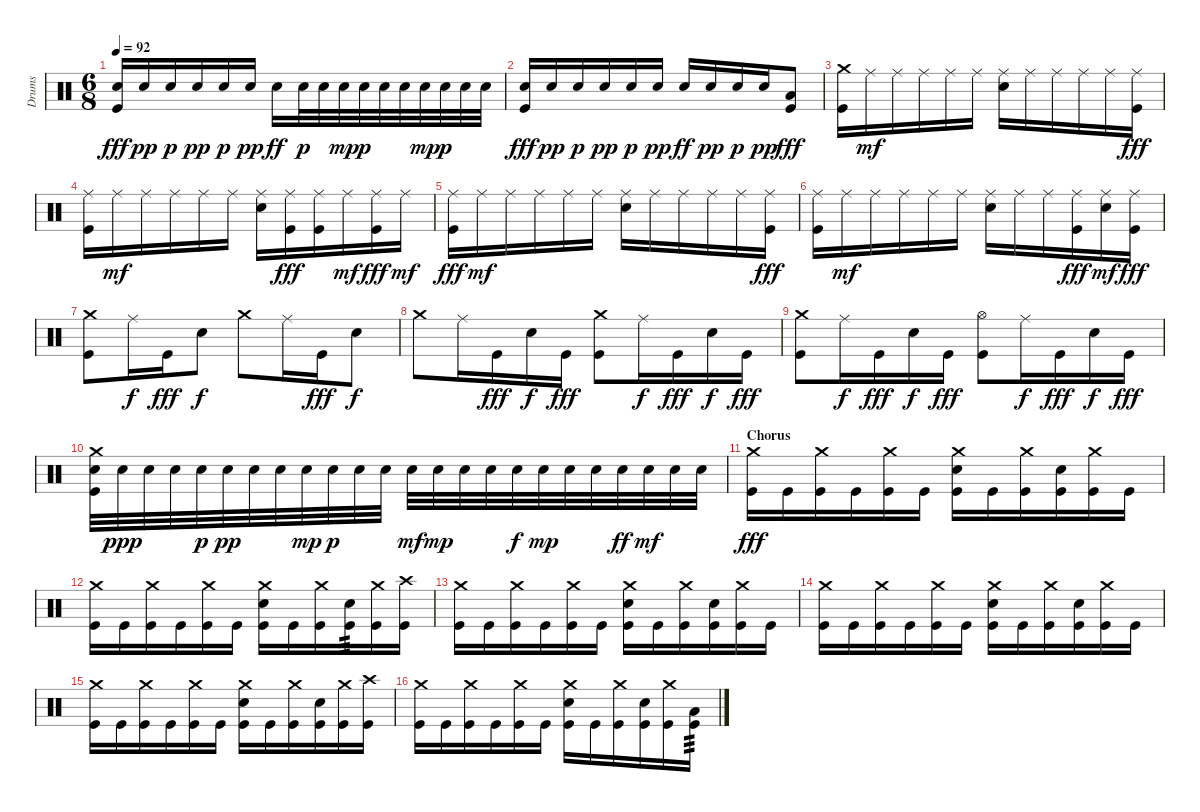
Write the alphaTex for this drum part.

\track ("Drums" "Drums") {instrument percussion}
\staff {score}
\articulation defaults
\ts (6 8)
\tempo 92
\clef neutral
\ks c
("Snare (hit) 2" "Kick (hit)").16{dy fff} "Snare (hit) 2".16{dy pp} "Snare (hit) 2".16{dy p} "Snare (hit) 2".16{dy pp} "Snare (hit) 2".16{dy p} "Snare (hit) 2".16{dy pp} "Snare (hit) 2".16{dy ff} "Snare (hit) 2".32{dy p} "Snare (hit) 2".32 "Snare (hit) 2".32{dy mp} "Snare (hit) 2".32{dy p} "Snare (hit) 2".32 "Snare (hit) 2".32 "Snare (hit) 2".32{dy mp} "Snare (hit) 2".32{dy p} "Snare (hit) 2".32 "Snare (hit) 2".32 |
("Snare (hit) 2" "Kick (hit)").16{dy fff} "Snare (hit) 2".16{dy pp} "Snare (hit) 2".16{dy p} "Snare (hit) 2".16{dy pp} "Snare (hit) 2".16{dy p} "Snare (hit) 2".16{dy pp} "Snare (hit) 2".16{dy ff} "Snare (hit) 2".16{dy pp} "Snare (hit) 2".16{dy p} "Snare (hit) 2".16{dy pp} ("Low Tom (hit)" "Kick (hit)").8{dy fff} |
("Crash medium (hit)" "Kick (hit)").16 "Ride (middle)".16{dy mf} "Ride (middle)".16 "Ride (middle)".16 "Ride (middle)".16 "Ride (middle)".16 ("Ride (middle)" "Snare (hit) 2").16 "Ride (middle)".16 "Ride (middle)".16 "Ride (middle)".16 "Ride (middle)".16 ("Ride (middle)" "Kick (hit)").16{dy fff} |
("Ride (middle)" "Kick (hit)").16 "Ride (middle)".16{dy mf} "Ride (middle)".16 "Ride (middle)".16 "Ride (middle)".16 "Ride (middle)".16 ("Ride (middle)" "Snare (hit) 2").16 ("Ride (middle)" "Kick (hit)").16{dy fff} ("Ride (middle)" "Kick (hit)").16 "Ride (middle)".16{dy mf} ("Ride (middle)" "Kick (hit)").16{dy fff} "Ride (middle)".16{dy mf} |
("Ride (middle)" "Kick (hit)").16{dy fff} "Ride (middle)".16{dy mf} "Ride (middle)".16 "Ride (middle)".16 "Ride (middle)".16 "Ride (middle)".16 ("Ride (middle)" "Snare (hit) 2").16 "Ride (middle)".16 "Ride (middle)".16 "Ride (middle)".16 "Ride (middle)".16 ("Ride (middle)" "Kick (hit)").16{dy fff} |
("Ride (middle)" "Kick (hit)").16 "Ride (middle)".16{dy mf} "Ride (middle)".16 "Ride (middle)".16 "Ride (middle)".16 "Ride (middle)".16 ("Ride (middle)" "Snare (hit) 2").16 "Ride (middle)".16 "Ride (middle)".16 ("Ride (middle)" "Kick (hit)").16{dy fff} ("Ride (middle)" "Snare (hit) 2").16{dy mf} ("Ride (middle)" "Kick (hit)").16{dy fff} |
("Crash medium (hit)" "Kick (hit)").8 "Ride (middle)".16{dy f} "Kick (hit)".16{dy fff} "Snare (hit) 2".8{dy f} "Crash medium (hit)".8 "Ride (middle)".16 "Kick (hit)".16{dy fff} "Snare (hit) 2".8{dy f} |
"Crash medium (hit)".8 "Ride (middle)".16 "Kick (hit)".16{dy fff} "Snare (hit) 2".16{dy f} "Kick (hit)".16{dy fff} ("Crash medium (hit)" "Kick (hit)").8 "Ride (middle)".16{dy f} "Kick (hit)".16{dy fff} "Snare (hit) 2".16{dy f} "Kick (hit)".16{dy fff} |
("Crash medium (hit)" "Kick (hit)").8 "Ride (middle)".16{dy f} "Kick (hit)".16{dy fff} "Snare (hit) 2".16{dy f} "Kick (hit)".16{dy fff} ("Hi-Hat (open)" "Kick (hit)").8 "Ride (middle)".16{dy f} "Kick (hit)".16{dy fff} "Snare (hit) 2".16{dy f} "Kick (hit)".16{dy fff} |
("Crash medium (hit)" "Snare (hit) 2" "Kick (hit)").32 "Snare (hit) 2".32{dy ppp} "Snare (hit) 2".32 "Snare (hit) 2".32 "Snare (hit) 2".32{dy p} "Snare (hit) 2".32{dy pp} "Snare (hit) 2".32 "Snare (hit) 2".32 "Snare (hit) 2".32{dy mp} "Snare (hit) 2".32{dy p} "Snare (hit) 2".32 "Snare (hit) 2".32 "Snare (hit) 2".32{dy mf} "Snare (hit) 2".32{dy mp} "Snare (hit) 2".32 "Snare (hit) 2".32 "Snare (hit) 2".32{dy f} "Snare (hit) 2".32{dy mp} "Snare (hit) 2".32 "Snare (hit) 2".32 "Snare (hit) 2".32{dy ff} "Snare (hit) 2".32{dy mf} "Snare (hit) 2".32 "Snare (hit) 2".32 |
\section ("" "Chorus")
("Crash medium (hit)" "Kick (hit)").16{dy fff} "Kick (hit)".16 ("Crash medium (hit)" "Kick (hit)").16 "Kick (hit)".16 ("Crash medium (hit)" "Kick (hit)").16 "Kick (hit)".16 ("Crash medium (hit)" "Snare (hit) 2" "Kick (hit)").16 "Kick (hit)".16 ("Crash medium (hit)" "Kick (hit)").16 ("Snare (hit) 2" "Kick (hit)").16 ("Crash medium (hit)" "Kick (hit)").16 "Kick (hit)".16 |
("Crash medium (hit)" "Kick (hit)").16 "Kick (hit)".16 ("Crash medium (hit)" "Kick (hit)").16 "Kick (hit)".16 ("Crash medium (hit)" "Kick (hit)").16 "Kick (hit)".16 ("Crash medium (hit)" "Snare (hit) 2" "Kick (hit)").16 "Kick (hit)".16 ("Crash medium (hit)" "Kick (hit)").16 ("Snare (hit) 2" "Kick (hit)").16{tp 3} ("Crash medium (hit)" "Kick (hit)").16 ("Crash high (hit)" "Kick (hit)").16 |
("Crash medium (hit)" "Kick (hit)").16 "Kick (hit)".16 ("Crash medium (hit)" "Kick (hit)").16 "Kick (hit)".16 ("Crash medium (hit)" "Kick (hit)").16 "Kick (hit)".16 ("Crash medium (hit)" "Snare (hit) 2" "Kick (hit)").16 "Kick (hit)".16 ("Crash medium (hit)" "Kick (hit)").16 ("Snare (hit) 2" "Kick (hit)").16 ("Crash medium (hit)" "Kick (hit)").16 "Kick (hit)".16 |
("Crash medium (hit)" "Kick (hit)").16 "Kick (hit)".16 ("Crash medium (hit)" "Kick (hit)").16 "Kick (hit)".16 ("Crash medium (hit)" "Kick (hit)").16 "Kick (hit)".16 ("Crash medium (hit)" "Snare (hit) 2" "Kick (hit)").16 "Kick (hit)".16 ("Crash medium (hit)" "Kick (hit)").16 ("Snare (hit) 2" "Kick (hit)").16 ("Crash medium (hit)" "Kick (hit)").16 "Kick (hit)".16 |
("Crash medium (hit)" "Kick (hit)").16 "Kick (hit)".16 ("Crash medium (hit)" "Kick (hit)").16 "Kick (hit)".16 ("Crash medium (hit)" "Kick (hit)").16 "Kick (hit)".16 ("Crash medium (hit)" "Snare (hit) 2" "Kick (hit)").16 "Kick (hit)".16 ("Crash medium (hit)" "Kick (hit)").16 ("Snare (hit) 2" "Kick (hit)").16 ("Crash medium (hit)" "Kick (hit)").16 ("Crash high (hit)" "Kick (hit)").16 |
("Crash medium (hit)" "Kick (hit)").16 "Kick (hit)".16 ("Crash medium (hit)" "Kick (hit)").16 "Kick (hit)".16 ("Crash medium (hit)" "Kick (hit)").16 "Kick (hit)".16 ("Crash medium (hit)" "Snare (hit) 2" "Kick (hit)").16 "Kick (hit)".16 ("Crash medium (hit)" "Kick (hit)").16 ("Snare (hit) 2" "Kick (hit)").16 ("Crash medium (hit)" "Kick (hit)").16 ("Low Tom (hit)" "Kick (hit)").16{tp 3}
